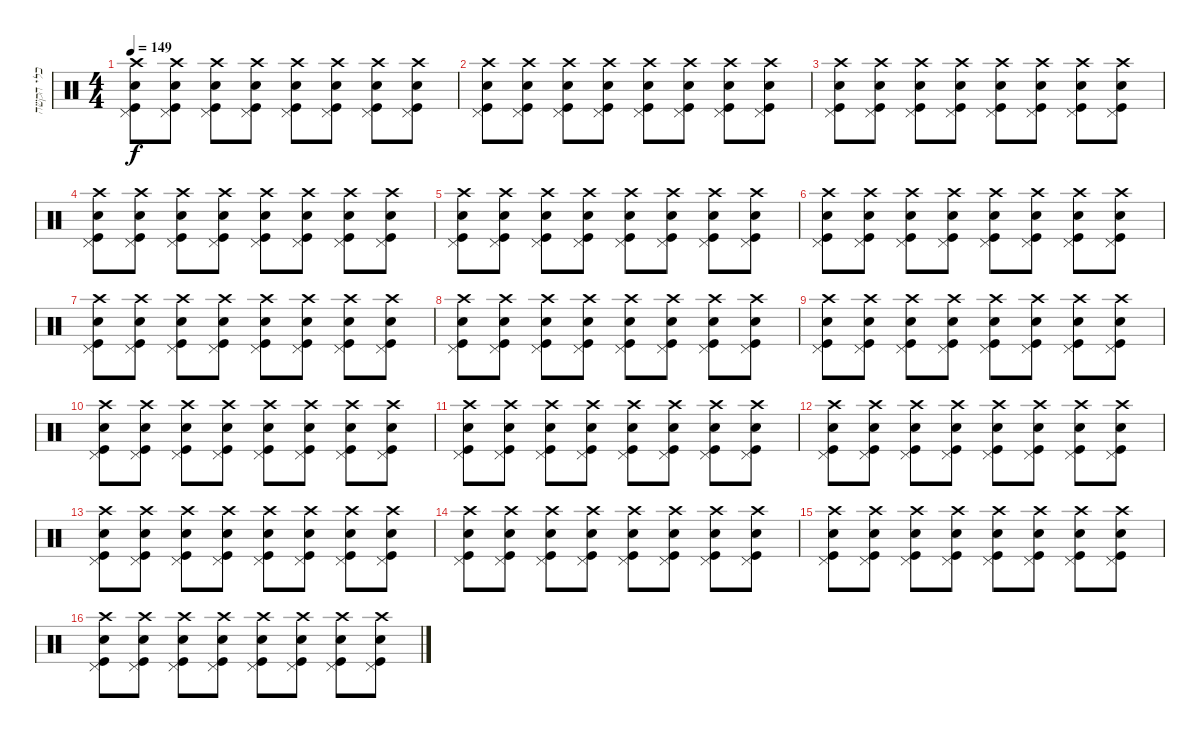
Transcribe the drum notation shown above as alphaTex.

\track ("כלי הקשה" "כלי הקשה") {instrument percussion}
\staff {score}
\articulation defaults
\ts (4 4)
\tempo 149
\clef neutral
\ks c
("Electric Snare (hit)" "Kick (hit)" "Pedal Hi-Hat (hit)" "Crash high (hit)").8{dy f} ("Electric Snare (hit)" "Kick (hit)" "Pedal Hi-Hat (hit)" "Crash high (hit)").8 ("Electric Snare (hit)" "Kick (hit)" "Pedal Hi-Hat (hit)" "Crash high (hit)").8 ("Electric Snare (hit)" "Kick (hit)" "Pedal Hi-Hat (hit)" "Crash high (hit)").8 ("Electric Snare (hit)" "Kick (hit)" "Pedal Hi-Hat (hit)" "Crash high (hit)").8 ("Electric Snare (hit)" "Kick (hit)" "Pedal Hi-Hat (hit)" "Crash high (hit)").8 ("Electric Snare (hit)" "Kick (hit)" "Pedal Hi-Hat (hit)" "Crash high (hit)").8 ("Electric Snare (hit)" "Kick (hit)" "Pedal Hi-Hat (hit)" "Crash high (hit)").8 |
("Electric Snare (hit)" "Kick (hit)" "Pedal Hi-Hat (hit)" "Crash high (hit)").8 ("Electric Snare (hit)" "Kick (hit)" "Pedal Hi-Hat (hit)" "Crash high (hit)").8 ("Electric Snare (hit)" "Kick (hit)" "Pedal Hi-Hat (hit)" "Crash high (hit)").8 ("Electric Snare (hit)" "Kick (hit)" "Pedal Hi-Hat (hit)" "Crash high (hit)").8 ("Electric Snare (hit)" "Kick (hit)" "Pedal Hi-Hat (hit)" "Crash high (hit)").8 ("Electric Snare (hit)" "Kick (hit)" "Pedal Hi-Hat (hit)" "Crash high (hit)").8 ("Electric Snare (hit)" "Kick (hit)" "Pedal Hi-Hat (hit)" "Crash high (hit)").8 ("Electric Snare (hit)" "Kick (hit)" "Pedal Hi-Hat (hit)" "Crash high (hit)").8 |
("Electric Snare (hit)" "Kick (hit)" "Pedal Hi-Hat (hit)" "Crash high (hit)").8 ("Electric Snare (hit)" "Kick (hit)" "Pedal Hi-Hat (hit)" "Crash high (hit)").8 ("Electric Snare (hit)" "Kick (hit)" "Pedal Hi-Hat (hit)" "Crash high (hit)").8 ("Electric Snare (hit)" "Kick (hit)" "Pedal Hi-Hat (hit)" "Crash high (hit)").8 ("Electric Snare (hit)" "Kick (hit)" "Pedal Hi-Hat (hit)" "Crash high (hit)").8 ("Electric Snare (hit)" "Kick (hit)" "Pedal Hi-Hat (hit)" "Crash high (hit)").8 ("Electric Snare (hit)" "Kick (hit)" "Pedal Hi-Hat (hit)" "Crash high (hit)").8 ("Electric Snare (hit)" "Kick (hit)" "Pedal Hi-Hat (hit)" "Crash high (hit)").8 |
("Electric Snare (hit)" "Kick (hit)" "Pedal Hi-Hat (hit)" "Crash high (hit)").8 ("Electric Snare (hit)" "Kick (hit)" "Pedal Hi-Hat (hit)" "Crash high (hit)").8 ("Electric Snare (hit)" "Kick (hit)" "Pedal Hi-Hat (hit)" "Crash high (hit)").8 ("Electric Snare (hit)" "Kick (hit)" "Pedal Hi-Hat (hit)" "Crash high (hit)").8 ("Electric Snare (hit)" "Kick (hit)" "Pedal Hi-Hat (hit)" "Crash high (hit)").8 ("Electric Snare (hit)" "Kick (hit)" "Pedal Hi-Hat (hit)" "Crash high (hit)").8 ("Electric Snare (hit)" "Kick (hit)" "Pedal Hi-Hat (hit)" "Crash high (hit)").8 ("Electric Snare (hit)" "Kick (hit)" "Pedal Hi-Hat (hit)" "Crash high (hit)").8 |
("Electric Snare (hit)" "Kick (hit)" "Pedal Hi-Hat (hit)" "Crash high (hit)").8 ("Electric Snare (hit)" "Kick (hit)" "Pedal Hi-Hat (hit)" "Crash high (hit)").8 ("Electric Snare (hit)" "Kick (hit)" "Pedal Hi-Hat (hit)" "Crash high (hit)").8 ("Electric Snare (hit)" "Kick (hit)" "Pedal Hi-Hat (hit)" "Crash high (hit)").8 ("Electric Snare (hit)" "Kick (hit)" "Pedal Hi-Hat (hit)" "Crash high (hit)").8 ("Electric Snare (hit)" "Kick (hit)" "Pedal Hi-Hat (hit)" "Crash high (hit)").8 ("Electric Snare (hit)" "Kick (hit)" "Pedal Hi-Hat (hit)" "Crash high (hit)").8 ("Electric Snare (hit)" "Kick (hit)" "Pedal Hi-Hat (hit)" "Crash high (hit)").8 |
("Electric Snare (hit)" "Kick (hit)" "Pedal Hi-Hat (hit)" "Crash high (hit)").8 ("Electric Snare (hit)" "Kick (hit)" "Pedal Hi-Hat (hit)" "Crash high (hit)").8 ("Electric Snare (hit)" "Kick (hit)" "Pedal Hi-Hat (hit)" "Crash high (hit)").8 ("Electric Snare (hit)" "Kick (hit)" "Pedal Hi-Hat (hit)" "Crash high (hit)").8 ("Electric Snare (hit)" "Kick (hit)" "Pedal Hi-Hat (hit)" "Crash high (hit)").8 ("Electric Snare (hit)" "Kick (hit)" "Pedal Hi-Hat (hit)" "Crash high (hit)").8 ("Electric Snare (hit)" "Kick (hit)" "Pedal Hi-Hat (hit)" "Crash high (hit)").8 ("Electric Snare (hit)" "Kick (hit)" "Pedal Hi-Hat (hit)" "Crash high (hit)").8 |
("Electric Snare (hit)" "Kick (hit)" "Pedal Hi-Hat (hit)" "Crash high (hit)").8 ("Electric Snare (hit)" "Kick (hit)" "Pedal Hi-Hat (hit)" "Crash high (hit)").8 ("Electric Snare (hit)" "Kick (hit)" "Pedal Hi-Hat (hit)" "Crash high (hit)").8 ("Electric Snare (hit)" "Kick (hit)" "Pedal Hi-Hat (hit)" "Crash high (hit)").8 ("Electric Snare (hit)" "Kick (hit)" "Pedal Hi-Hat (hit)" "Crash high (hit)").8 ("Electric Snare (hit)" "Kick (hit)" "Pedal Hi-Hat (hit)" "Crash high (hit)").8 ("Electric Snare (hit)" "Kick (hit)" "Pedal Hi-Hat (hit)" "Crash high (hit)").8 ("Electric Snare (hit)" "Kick (hit)" "Pedal Hi-Hat (hit)" "Crash high (hit)").8 |
("Electric Snare (hit)" "Kick (hit)" "Pedal Hi-Hat (hit)" "Crash high (hit)").8 ("Electric Snare (hit)" "Kick (hit)" "Pedal Hi-Hat (hit)" "Crash high (hit)").8 ("Electric Snare (hit)" "Kick (hit)" "Pedal Hi-Hat (hit)" "Crash high (hit)").8 ("Electric Snare (hit)" "Kick (hit)" "Pedal Hi-Hat (hit)" "Crash high (hit)").8 ("Electric Snare (hit)" "Kick (hit)" "Pedal Hi-Hat (hit)" "Crash high (hit)").8 ("Electric Snare (hit)" "Kick (hit)" "Pedal Hi-Hat (hit)" "Crash high (hit)").8 ("Electric Snare (hit)" "Kick (hit)" "Pedal Hi-Hat (hit)" "Crash high (hit)").8 ("Electric Snare (hit)" "Kick (hit)" "Pedal Hi-Hat (hit)" "Crash high (hit)").8 |
("Electric Snare (hit)" "Kick (hit)" "Pedal Hi-Hat (hit)" "Crash high (hit)").8 ("Electric Snare (hit)" "Kick (hit)" "Pedal Hi-Hat (hit)" "Crash high (hit)").8 ("Electric Snare (hit)" "Kick (hit)" "Pedal Hi-Hat (hit)" "Crash high (hit)").8 ("Electric Snare (hit)" "Kick (hit)" "Pedal Hi-Hat (hit)" "Crash high (hit)").8 ("Electric Snare (hit)" "Kick (hit)" "Pedal Hi-Hat (hit)" "Crash high (hit)").8 ("Electric Snare (hit)" "Kick (hit)" "Pedal Hi-Hat (hit)" "Crash high (hit)").8 ("Electric Snare (hit)" "Kick (hit)" "Pedal Hi-Hat (hit)" "Crash high (hit)").8 ("Electric Snare (hit)" "Kick (hit)" "Pedal Hi-Hat (hit)" "Crash high (hit)").8 |
("Electric Snare (hit)" "Kick (hit)" "Pedal Hi-Hat (hit)" "Crash high (hit)").8 ("Electric Snare (hit)" "Kick (hit)" "Pedal Hi-Hat (hit)" "Crash high (hit)").8 ("Electric Snare (hit)" "Kick (hit)" "Pedal Hi-Hat (hit)" "Crash high (hit)").8 ("Electric Snare (hit)" "Kick (hit)" "Pedal Hi-Hat (hit)" "Crash high (hit)").8 ("Electric Snare (hit)" "Kick (hit)" "Pedal Hi-Hat (hit)" "Crash high (hit)").8 ("Electric Snare (hit)" "Kick (hit)" "Pedal Hi-Hat (hit)" "Crash high (hit)").8 ("Electric Snare (hit)" "Kick (hit)" "Pedal Hi-Hat (hit)" "Crash high (hit)").8 ("Electric Snare (hit)" "Kick (hit)" "Pedal Hi-Hat (hit)" "Crash high (hit)").8 |
("Electric Snare (hit)" "Kick (hit)" "Pedal Hi-Hat (hit)" "Crash high (hit)").8 ("Electric Snare (hit)" "Kick (hit)" "Pedal Hi-Hat (hit)" "Crash high (hit)").8 ("Electric Snare (hit)" "Kick (hit)" "Pedal Hi-Hat (hit)" "Crash high (hit)").8 ("Electric Snare (hit)" "Kick (hit)" "Pedal Hi-Hat (hit)" "Crash high (hit)").8 ("Electric Snare (hit)" "Kick (hit)" "Pedal Hi-Hat (hit)" "Crash high (hit)").8 ("Electric Snare (hit)" "Kick (hit)" "Pedal Hi-Hat (hit)" "Crash high (hit)").8 ("Electric Snare (hit)" "Kick (hit)" "Pedal Hi-Hat (hit)" "Crash high (hit)").8 ("Electric Snare (hit)" "Kick (hit)" "Pedal Hi-Hat (hit)" "Crash high (hit)").8 |
("Electric Snare (hit)" "Kick (hit)" "Pedal Hi-Hat (hit)" "Crash high (hit)").8 ("Electric Snare (hit)" "Kick (hit)" "Pedal Hi-Hat (hit)" "Crash high (hit)").8 ("Electric Snare (hit)" "Kick (hit)" "Pedal Hi-Hat (hit)" "Crash high (hit)").8 ("Electric Snare (hit)" "Kick (hit)" "Pedal Hi-Hat (hit)" "Crash high (hit)").8 ("Electric Snare (hit)" "Kick (hit)" "Pedal Hi-Hat (hit)" "Crash high (hit)").8 ("Electric Snare (hit)" "Kick (hit)" "Pedal Hi-Hat (hit)" "Crash high (hit)").8 ("Electric Snare (hit)" "Kick (hit)" "Pedal Hi-Hat (hit)" "Crash high (hit)").8 ("Electric Snare (hit)" "Kick (hit)" "Pedal Hi-Hat (hit)" "Crash high (hit)").8 |
("Electric Snare (hit)" "Kick (hit)" "Pedal Hi-Hat (hit)" "Crash high (hit)").8 ("Electric Snare (hit)" "Kick (hit)" "Pedal Hi-Hat (hit)" "Crash high (hit)").8 ("Electric Snare (hit)" "Kick (hit)" "Pedal Hi-Hat (hit)" "Crash high (hit)").8 ("Electric Snare (hit)" "Kick (hit)" "Pedal Hi-Hat (hit)" "Crash high (hit)").8 ("Electric Snare (hit)" "Kick (hit)" "Pedal Hi-Hat (hit)" "Crash high (hit)").8 ("Electric Snare (hit)" "Kick (hit)" "Pedal Hi-Hat (hit)" "Crash high (hit)").8 ("Electric Snare (hit)" "Kick (hit)" "Pedal Hi-Hat (hit)" "Crash high (hit)").8 ("Electric Snare (hit)" "Kick (hit)" "Pedal Hi-Hat (hit)" "Crash high (hit)").8 |
("Electric Snare (hit)" "Kick (hit)" "Pedal Hi-Hat (hit)" "Crash high (hit)").8 ("Electric Snare (hit)" "Kick (hit)" "Pedal Hi-Hat (hit)" "Crash high (hit)").8 ("Electric Snare (hit)" "Kick (hit)" "Pedal Hi-Hat (hit)" "Crash high (hit)").8 ("Electric Snare (hit)" "Kick (hit)" "Pedal Hi-Hat (hit)" "Crash high (hit)").8 ("Electric Snare (hit)" "Kick (hit)" "Pedal Hi-Hat (hit)" "Crash high (hit)").8 ("Electric Snare (hit)" "Kick (hit)" "Pedal Hi-Hat (hit)" "Crash high (hit)").8 ("Electric Snare (hit)" "Kick (hit)" "Pedal Hi-Hat (hit)" "Crash high (hit)").8 ("Electric Snare (hit)" "Kick (hit)" "Pedal Hi-Hat (hit)" "Crash high (hit)").8 |
("Electric Snare (hit)" "Kick (hit)" "Pedal Hi-Hat (hit)" "Crash high (hit)").8 ("Electric Snare (hit)" "Kick (hit)" "Pedal Hi-Hat (hit)" "Crash high (hit)").8 ("Electric Snare (hit)" "Kick (hit)" "Pedal Hi-Hat (hit)" "Crash high (hit)").8 ("Electric Snare (hit)" "Kick (hit)" "Pedal Hi-Hat (hit)" "Crash high (hit)").8 ("Electric Snare (hit)" "Kick (hit)" "Pedal Hi-Hat (hit)" "Crash high (hit)").8 ("Electric Snare (hit)" "Kick (hit)" "Pedal Hi-Hat (hit)" "Crash high (hit)").8 ("Electric Snare (hit)" "Kick (hit)" "Pedal Hi-Hat (hit)" "Crash high (hit)").8 ("Electric Snare (hit)" "Kick (hit)" "Pedal Hi-Hat (hit)" "Crash high (hit)").8 |
("Electric Snare (hit)" "Kick (hit)" "Pedal Hi-Hat (hit)" "Crash high (hit)").8 ("Electric Snare (hit)" "Kick (hit)" "Pedal Hi-Hat (hit)" "Crash high (hit)").8 ("Electric Snare (hit)" "Kick (hit)" "Pedal Hi-Hat (hit)" "Crash high (hit)").8 ("Electric Snare (hit)" "Kick (hit)" "Pedal Hi-Hat (hit)" "Crash high (hit)").8 ("Electric Snare (hit)" "Kick (hit)" "Pedal Hi-Hat (hit)" "Crash high (hit)").8 ("Electric Snare (hit)" "Kick (hit)" "Pedal Hi-Hat (hit)" "Crash high (hit)").8 ("Electric Snare (hit)" "Kick (hit)" "Pedal Hi-Hat (hit)" "Crash high (hit)").8 ("Electric Snare (hit)" "Kick (hit)" "Pedal Hi-Hat (hit)" "Crash high (hit)").8
